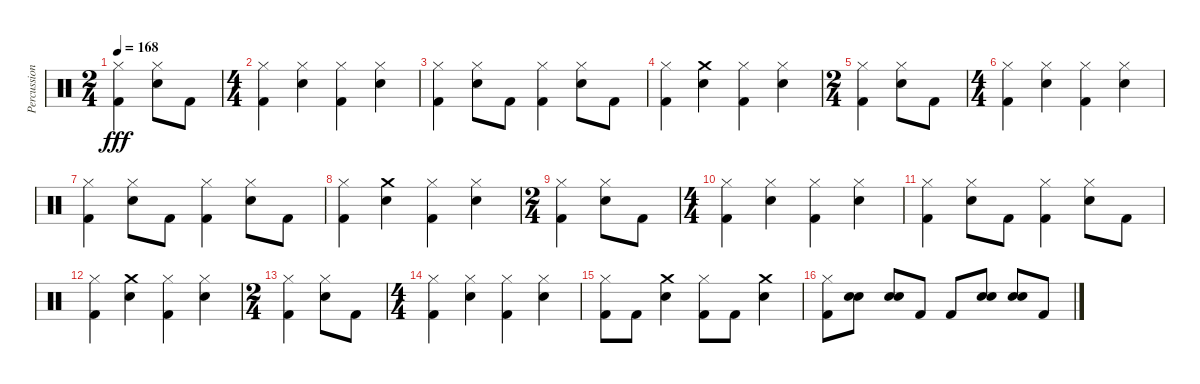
\track ("Percussion" "Percussion") {instrument percussion}
\staff {score}
\articulation defaults
\ts (2 4)
\tempo 168
\clef neutral
\ks c
("Hi-Hat (closed)" "Kick (hit) 2").4{dy fff} ("Snare (hit) 2" "Hi-Hat (closed)").8 "Kick (hit) 2".8 |
\ts (4 4)
("Kick (hit) 2" "Hi-Hat (closed)").4 ("Snare (hit) 2" "Hi-Hat (closed)").4 ("Kick (hit) 2" "Hi-Hat (closed)").4 ("Snare (hit) 2" "Hi-Hat (closed)").4 |
("Hi-Hat (closed)" "Kick (hit) 2").4 ("Snare (hit) 2" "Hi-Hat (closed)").8 "Kick (hit) 2".8 ("Kick (hit) 2" "Hi-Hat (closed)").4 ("Hi-Hat (closed)" "Snare (hit) 2").8 "Kick (hit) 2".8 |
("Hi-Hat (closed)" "Kick (hit) 2").4 ("Crash medium (hit)" "Snare (hit) 2").4 ("Hi-Hat (closed)" "Kick (hit) 2").4 ("Snare (hit) 2" "Hi-Hat (closed)").4 |
\ts (2 4)
("Hi-Hat (closed)" "Kick (hit) 2").4 ("Snare (hit) 2" "Hi-Hat (closed)").8 "Kick (hit) 2".8 |
\ts (4 4)
("Kick (hit) 2" "Hi-Hat (closed)").4 ("Snare (hit) 2" "Hi-Hat (closed)").4 ("Kick (hit) 2" "Hi-Hat (closed)").4 ("Snare (hit) 2" "Hi-Hat (closed)").4 |
("Hi-Hat (closed)" "Kick (hit) 2").4 ("Snare (hit) 2" "Hi-Hat (closed)").8 "Kick (hit) 2".8 ("Kick (hit) 2" "Hi-Hat (closed)").4 ("Hi-Hat (closed)" "Snare (hit) 2").8 "Kick (hit) 2".8 |
("Hi-Hat (closed)" "Kick (hit) 2").4 ("Crash medium (hit)" "Snare (hit) 2").4 ("Hi-Hat (closed)" "Kick (hit) 2").4 ("Snare (hit) 2" "Hi-Hat (closed)").4 |
\ts (2 4)
("Hi-Hat (closed)" "Kick (hit) 2").4 ("Snare (hit) 2" "Hi-Hat (closed)").8 "Kick (hit) 2".8 |
\ts (4 4)
("Kick (hit) 2" "Hi-Hat (closed)").4 ("Snare (hit) 2" "Hi-Hat (closed)").4 ("Kick (hit) 2" "Hi-Hat (closed)").4 ("Snare (hit) 2" "Hi-Hat (closed)").4 |
("Hi-Hat (closed)" "Kick (hit) 2").4 ("Snare (hit) 2" "Hi-Hat (closed)").8 "Kick (hit) 2".8 ("Kick (hit) 2" "Hi-Hat (closed)").4 ("Hi-Hat (closed)" "Snare (hit) 2").8 "Kick (hit) 2".8 |
("Hi-Hat (closed)" "Kick (hit) 2").4 ("Crash medium (hit)" "Snare (hit) 2").4 ("Hi-Hat (closed)" "Kick (hit) 2").4 ("Snare (hit) 2" "Hi-Hat (closed)").4 |
\ts (2 4)
("Hi-Hat (closed)" "Kick (hit) 2").4 ("Snare (hit) 2" "Hi-Hat (closed)").8 "Kick (hit) 2".8 |
\ts (4 4)
("Kick (hit) 2" "Hi-Hat (closed)").4 ("Snare (hit) 2" "Hi-Hat (closed)").4 ("Kick (hit) 2" "Hi-Hat (closed)").4 ("Snare (hit) 2" "Hi-Hat (closed)").4 |
("Kick (hit) 2" "Hi-Hat (closed)").8 "Kick (hit) 2".8 ("Crash medium (hit)" "Snare (hit) 2").4 ("Kick (hit) 2" "Hi-Hat (closed)").8 "Kick (hit) 2".8 ("Crash medium (hit)" "Snare (hit) 2").4 |
("Kick (hit) 2" "Hi-Hat (closed)").8 ("Snare (hit) 2" "Snare (hit) 2").8 ("Snare (hit) 2" "Snare (hit) 2").8 "Kick (hit) 2".8 "Kick (hit) 2".8 ("Snare (hit) 2" "Snare (hit) 2").8 ("Snare (hit) 2" "Snare (hit) 2").8 "Kick (hit) 2".8
